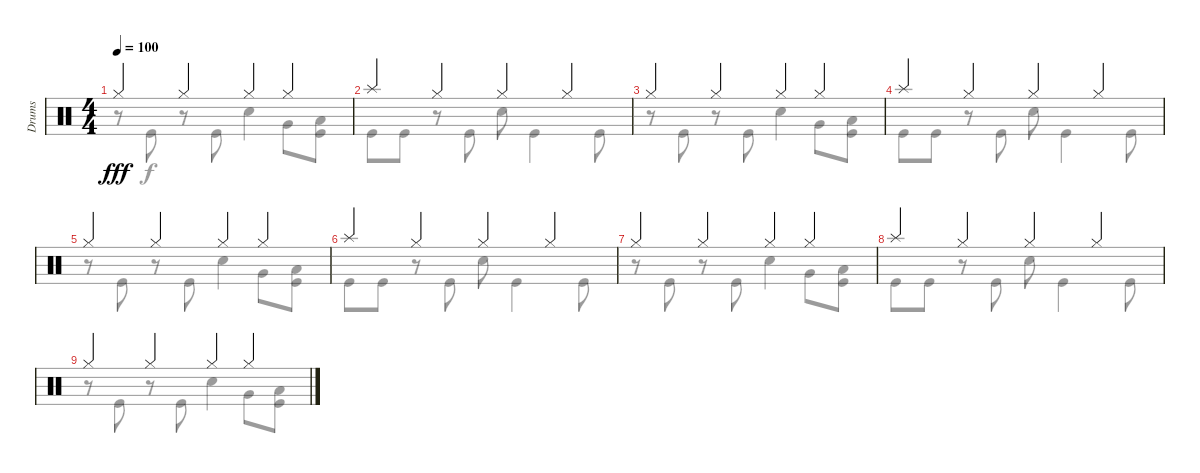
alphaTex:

\track ("Drums" "Drums") {instrument percussion}
\staff {score}
\articulation defaults
\voice
\ts (4 4)
\tempo 100
\clef neutral
\ks c "Hi-Hat (closed)".4{dy fff} "Hi-Hat (closed)".4 "Hi-Hat (closed)".4 "Hi-Hat (closed)".4
|
"Splash (hit)".4{volume 4} "Hi-Hat (closed)".4 "Hi-Hat (closed)".4 "Hi-Hat (closed)".4 |
"Hi-Hat (closed)".4 "Hi-Hat (closed)".4 "Hi-Hat (closed)".4 "Hi-Hat (closed)".4 |
"Splash (hit)".4 "Hi-Hat (closed)".4 "Hi-Hat (closed)".4 "Hi-Hat (closed)".4 |
"Hi-Hat (closed)".4 "Hi-Hat (closed)".4 "Hi-Hat (closed)".4 "Hi-Hat (closed)".4 |
"Splash (hit)".4{volume 0} "Hi-Hat (closed)".4 "Hi-Hat (closed)".4 "Hi-Hat (closed)".4 |
"Hi-Hat (closed)".4 "Hi-Hat (closed)".4 "Hi-Hat (closed)".4 "Hi-Hat (closed)".4 |
"Splash (hit)".4 "Hi-Hat (closed)".4 "Hi-Hat (closed)".4 "Hi-Hat (closed)".4 |
"Hi-Hat (closed)".4 "Hi-Hat (closed)".4 "Hi-Hat (closed)".4 "Hi-Hat (closed)".4
\voice
\clef neutral
\ottava regular
\simile none
\ks c
r.8{dy f} "Kick (hit)".8 r.8 "Kick (hit)".8 "Snare (hit) 2".4 "Very Low Tom (hit)".8 ("Low Floor Tom (hit)" "Kick (hit)").8 |
"Kick (hit)".8 "Kick (hit)".8 r.8 "Kick (hit)".8 "Snare (hit) 2".8 "Kick (hit)".4 "Kick (hit)".8 |
r.8 "Kick (hit)".8 r.8 "Kick (hit)".8 "Snare (hit) 2".4 "Very Low Tom (hit)".8 ("Low Floor Tom (hit)" "Kick (hit)").8 |
"Kick (hit)".8 "Kick (hit)".8 r.8 "Kick (hit)".8 "Snare (hit) 2".8 "Kick (hit)".4 "Kick (hit)".8 |
r.8 "Kick (hit)".8 r.8 "Kick (hit)".8 "Snare (hit) 2".4 "Very Low Tom (hit)".8 ("Low Floor Tom (hit)" "Kick (hit)").8 |
"Kick (hit)".8 "Kick (hit)".8 r.8 "Kick (hit)".8 "Snare (hit) 2".8 "Kick (hit)".4 "Kick (hit)".8 |
r.8 "Kick (hit)".8 r.8 "Kick (hit)".8 "Snare (hit) 2".4 "Very Low Tom (hit)".8 ("Low Floor Tom (hit)" "Kick (hit)").8 |
"Kick (hit)".8 "Kick (hit)".8 r.8 "Kick (hit)".8 "Snare (hit) 2".8 "Kick (hit)".4 "Kick (hit)".8 |
r.8 "Kick (hit)".8 r.8 "Kick (hit)".8 "Snare (hit) 2".4 "Very Low Tom (hit)".8 ("Low Floor Tom (hit)" "Kick (hit)").8
